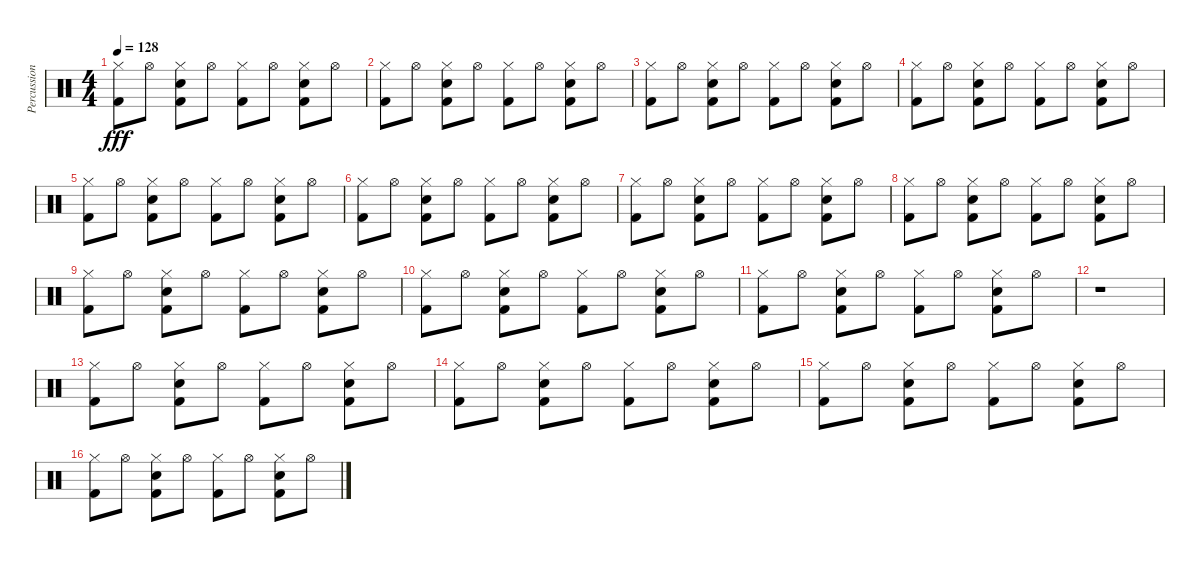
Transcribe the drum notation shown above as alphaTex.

\track ("Percussion" "Percussion") {instrument percussion}
\staff {score}
\articulation defaults
\ts (4 4)
\tempo 128
\clef neutral
\ks c
("Hi-Hat (closed)" "Kick (hit) 2").8{dy fff} "Hi-Hat (open)".8 ("Hi-Hat (closed)" "Kick (hit) 2" "Hand Clap (hit)").8 "Hi-Hat (open)".8 ("Hi-Hat (closed)" "Kick (hit) 2").8 "Hi-Hat (open)".8 ("Hi-Hat (closed)" "Kick (hit) 2" "Hand Clap (hit)").8 "Hi-Hat (open)".8 |
("Hi-Hat (closed)" "Kick (hit) 2").8 "Hi-Hat (open)".8 ("Hi-Hat (closed)" "Kick (hit) 2" "Hand Clap (hit)").8 "Hi-Hat (open)".8 ("Hi-Hat (closed)" "Kick (hit) 2").8 "Hi-Hat (open)".8 ("Hi-Hat (closed)" "Kick (hit) 2" "Hand Clap (hit)").8 "Hi-Hat (open)".8 |
("Hi-Hat (closed)" "Kick (hit) 2").8 "Hi-Hat (open)".8 ("Hi-Hat (closed)" "Kick (hit) 2" "Hand Clap (hit)").8 "Hi-Hat (open)".8 ("Hi-Hat (closed)" "Kick (hit) 2").8 "Hi-Hat (open)".8 ("Hi-Hat (closed)" "Kick (hit) 2" "Hand Clap (hit)").8 "Hi-Hat (open)".8 |
("Hi-Hat (closed)" "Kick (hit) 2").8 "Hi-Hat (open)".8 ("Hi-Hat (closed)" "Kick (hit) 2" "Hand Clap (hit)").8 "Hi-Hat (open)".8 ("Hi-Hat (closed)" "Kick (hit) 2").8 "Hi-Hat (open)".8 ("Hi-Hat (closed)" "Kick (hit) 2" "Hand Clap (hit)").8 "Hi-Hat (open)".8 |
("Hi-Hat (closed)" "Kick (hit) 2").8 "Hi-Hat (open)".8 ("Hi-Hat (closed)" "Kick (hit) 2" "Hand Clap (hit)").8 "Hi-Hat (open)".8 ("Hi-Hat (closed)" "Kick (hit) 2").8 "Hi-Hat (open)".8 ("Hi-Hat (closed)" "Kick (hit) 2" "Hand Clap (hit)").8 "Hi-Hat (open)".8 |
("Hi-Hat (closed)" "Kick (hit) 2").8 "Hi-Hat (open)".8 ("Hi-Hat (closed)" "Kick (hit) 2" "Hand Clap (hit)").8 "Hi-Hat (open)".8 ("Hi-Hat (closed)" "Kick (hit) 2").8 "Hi-Hat (open)".8 ("Hi-Hat (closed)" "Kick (hit) 2" "Hand Clap (hit)").8 "Hi-Hat (open)".8 |
("Hi-Hat (closed)" "Kick (hit) 2").8 "Hi-Hat (open)".8 ("Hi-Hat (closed)" "Kick (hit) 2" "Hand Clap (hit)").8 "Hi-Hat (open)".8 ("Hi-Hat (closed)" "Kick (hit) 2").8 "Hi-Hat (open)".8 ("Hi-Hat (closed)" "Kick (hit) 2" "Hand Clap (hit)").8 "Hi-Hat (open)".8 |
("Hi-Hat (closed)" "Kick (hit) 2").8 "Hi-Hat (open)".8 ("Hi-Hat (closed)" "Kick (hit) 2" "Hand Clap (hit)").8 "Hi-Hat (open)".8 ("Hi-Hat (closed)" "Kick (hit) 2").8 "Hi-Hat (open)".8 ("Hi-Hat (closed)" "Kick (hit) 2" "Hand Clap (hit)").8 "Hi-Hat (open)".8 |
("Hi-Hat (closed)" "Kick (hit) 2").8 "Hi-Hat (open)".8 ("Hi-Hat (closed)" "Kick (hit) 2" "Hand Clap (hit)").8 "Hi-Hat (open)".8 ("Hi-Hat (closed)" "Kick (hit) 2").8 "Hi-Hat (open)".8 ("Hi-Hat (closed)" "Kick (hit) 2" "Hand Clap (hit)").8 "Hi-Hat (open)".8 |
("Hi-Hat (closed)" "Kick (hit) 2").8 "Hi-Hat (open)".8 ("Hi-Hat (closed)" "Kick (hit) 2" "Hand Clap (hit)").8 "Hi-Hat (open)".8 ("Hi-Hat (closed)" "Kick (hit) 2").8 "Hi-Hat (open)".8 ("Hi-Hat (closed)" "Kick (hit) 2" "Hand Clap (hit)").8 "Hi-Hat (open)".8 |
("Hi-Hat (closed)" "Kick (hit) 2").8 "Hi-Hat (open)".8 ("Hi-Hat (closed)" "Kick (hit) 2" "Hand Clap (hit)").8 "Hi-Hat (open)".8 ("Hi-Hat (closed)" "Kick (hit) 2").8 "Hi-Hat (open)".8 ("Hi-Hat (closed)" "Kick (hit) 2" "Hand Clap (hit)").8 "Hi-Hat (open)".8 |
r.1 |
("Hi-Hat (closed)" "Kick (hit) 2").8 "Hi-Hat (open)".8 ("Hi-Hat (closed)" "Kick (hit) 2" "Hand Clap (hit)").8 "Hi-Hat (open)".8 ("Hi-Hat (closed)" "Kick (hit) 2").8 "Hi-Hat (open)".8 ("Hi-Hat (closed)" "Kick (hit) 2" "Hand Clap (hit)").8 "Hi-Hat (open)".8 |
("Hi-Hat (closed)" "Kick (hit) 2").8 "Hi-Hat (open)".8 ("Hi-Hat (closed)" "Kick (hit) 2" "Hand Clap (hit)").8 "Hi-Hat (open)".8 ("Hi-Hat (closed)" "Kick (hit) 2").8 "Hi-Hat (open)".8 ("Hi-Hat (closed)" "Kick (hit) 2" "Hand Clap (hit)").8 "Hi-Hat (open)".8 |
("Hi-Hat (closed)" "Kick (hit) 2").8 "Hi-Hat (open)".8 ("Hi-Hat (closed)" "Kick (hit) 2" "Hand Clap (hit)").8 "Hi-Hat (open)".8 ("Hi-Hat (closed)" "Kick (hit) 2").8 "Hi-Hat (open)".8 ("Hi-Hat (closed)" "Kick (hit) 2" "Hand Clap (hit)").8 "Hi-Hat (open)".8 |
("Hi-Hat (closed)" "Kick (hit) 2").8 "Hi-Hat (open)".8 ("Hi-Hat (closed)" "Kick (hit) 2" "Hand Clap (hit)").8 "Hi-Hat (open)".8 ("Hi-Hat (closed)" "Kick (hit) 2").8 "Hi-Hat (open)".8 ("Hi-Hat (closed)" "Kick (hit) 2" "Hand Clap (hit)").8 "Hi-Hat (open)".8
